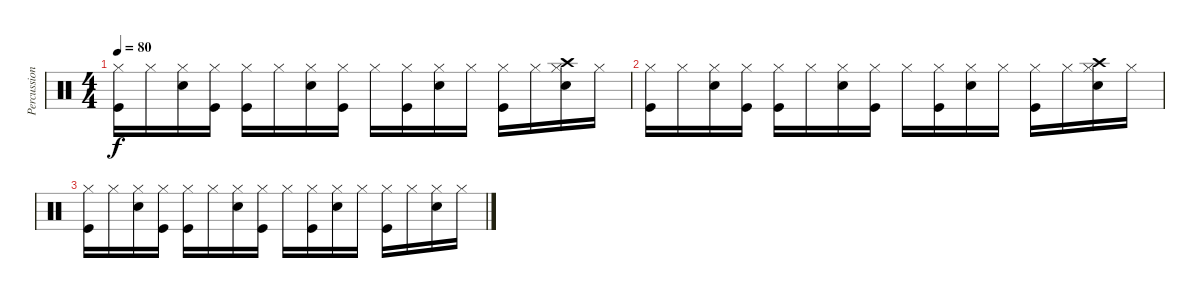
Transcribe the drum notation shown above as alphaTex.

\track ("Percussion" "Percussion") {instrument percussion}
\staff {score}
\articulation defaults
\ts (4 4)
\tempo 80
\clef neutral
\ks c
("Hi-Hat (closed)" "Kick (hit)").16{dy f} "Hi-Hat (closed)".16 ("Hi-Hat (closed)" "Snare (hit) 2").16 ("Hi-Hat (closed)" "Kick (hit)").16 ("Hi-Hat (closed)" "Kick (hit)").16 "Hi-Hat (closed)".16 ("Hi-Hat (closed)" "Snare (hit) 2").16 ("Hi-Hat (closed)" "Kick (hit)").16 "Hi-Hat (closed)".16 ("Hi-Hat (closed)" "Kick (hit)").16 ("Hi-Hat (closed)" "Snare (hit) 2").16 "Hi-Hat (closed)".16 ("Hi-Hat (closed)" "Kick (hit)").16 "Hi-Hat (closed)".16 ("Hi-Hat (closed)" "Snare (hit) 2" "Crash high (hit)").16 "Hi-Hat (closed)".16 |
("Hi-Hat (closed)" "Kick (hit)").16 "Hi-Hat (closed)".16 ("Hi-Hat (closed)" "Snare (hit) 2").16 ("Hi-Hat (closed)" "Kick (hit)").16 ("Hi-Hat (closed)" "Kick (hit)").16 "Hi-Hat (closed)".16 ("Hi-Hat (closed)" "Snare (hit) 2").16 ("Hi-Hat (closed)" "Kick (hit)").16 "Hi-Hat (closed)".16 ("Hi-Hat (closed)" "Kick (hit)").16 ("Hi-Hat (closed)" "Snare (hit) 2").16 "Hi-Hat (closed)".16 ("Hi-Hat (closed)" "Kick (hit)").16 "Hi-Hat (closed)".16 ("Hi-Hat (closed)" "Snare (hit) 2" "Crash high (hit)").16 "Hi-Hat (closed)".16 |
("Hi-Hat (closed)" "Kick (hit)").16 "Hi-Hat (closed)".16 ("Hi-Hat (closed)" "Snare (hit) 2").16 ("Hi-Hat (closed)" "Kick (hit)").16 ("Hi-Hat (closed)" "Kick (hit)").16 "Hi-Hat (closed)".16 ("Hi-Hat (closed)" "Snare (hit) 2").16 ("Hi-Hat (closed)" "Kick (hit)").16 "Hi-Hat (closed)".16 ("Hi-Hat (closed)" "Kick (hit)").16 ("Hi-Hat (closed)" "Snare (hit) 2").16 "Hi-Hat (closed)".16 ("Hi-Hat (closed)" "Kick (hit)").16 "Hi-Hat (closed)".16 ("Hi-Hat (closed)" "Snare (hit) 2").16 "Hi-Hat (closed)".16
